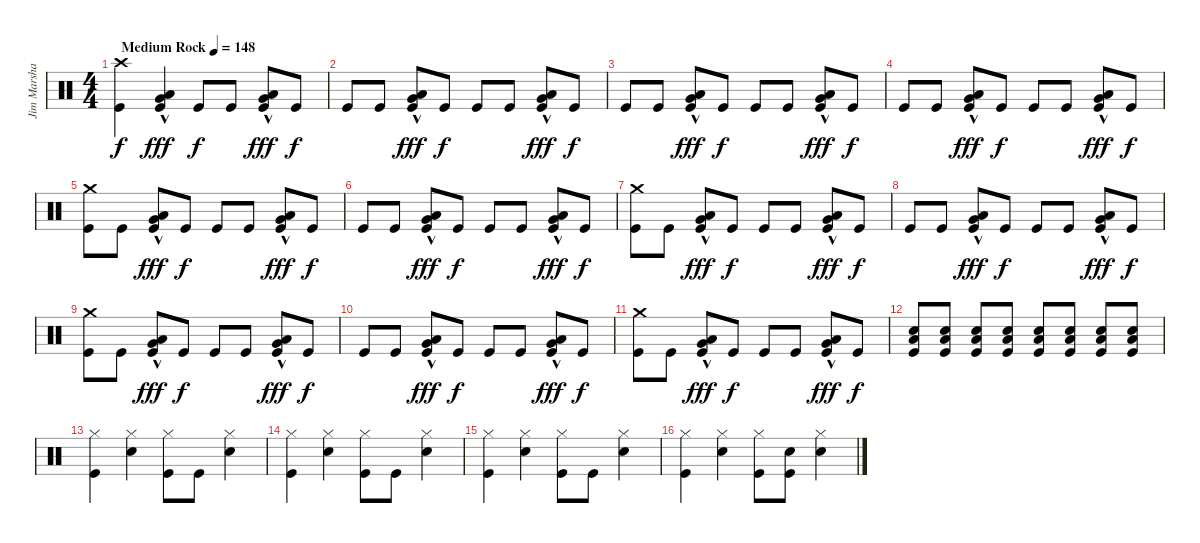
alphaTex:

\track ("Jim Marshall Drums" "Jim Marsha") {instrument percussion}
\staff {score}
\articulation defaults
\ts (4 4)
\tempo (148 "Medium Rock")
\clef neutral
\ks c
("Crash high (hit)" "Kick (hit)").4{dy f} ("Low Tom (hit)"{hac} "Very Low Tom (hit)" "Kick (hit)").4{dy fff} "Kick (hit)".8{dy f} "Kick (hit)".8 ("Low Tom (hit)"{hac} "Very Low Tom (hit)" "Kick (hit)").8{dy fff} "Kick (hit)".8{dy f} |
"Kick (hit)".8 "Kick (hit)".8 ("Low Tom (hit)"{hac} "Very Low Tom (hit)" "Kick (hit)").8{dy fff} "Kick (hit)".8{dy f} "Kick (hit)".8 "Kick (hit)".8 ("Low Tom (hit)"{hac} "Very Low Tom (hit)" "Kick (hit)").8{dy fff} "Kick (hit)".8{dy f} |
"Kick (hit)".8 "Kick (hit)".8 ("Low Tom (hit)"{hac} "Very Low Tom (hit)" "Kick (hit)").8{dy fff} "Kick (hit)".8{dy f} "Kick (hit)".8 "Kick (hit)".8 ("Low Tom (hit)"{hac} "Very Low Tom (hit)" "Kick (hit)").8{dy fff} "Kick (hit)".8{dy f} |
"Kick (hit)".8 "Kick (hit)".8 ("Low Tom (hit)"{hac} "Very Low Tom (hit)" "Kick (hit)").8{dy fff} "Kick (hit)".8{dy f} "Kick (hit)".8 "Kick (hit)".8 ("Low Tom (hit)"{hac} "Very Low Tom (hit)" "Kick (hit)").8{dy fff} "Kick (hit)".8{dy f} |
("Crash medium (hit)" "Kick (hit)").8 "Kick (hit)".8 ("Low Tom (hit)"{hac} "Very Low Tom (hit)" "Kick (hit)").8{dy fff} "Kick (hit)".8{dy f} "Kick (hit)".8 "Kick (hit)".8 ("Low Tom (hit)"{hac} "Very Low Tom (hit)" "Kick (hit)").8{dy fff} "Kick (hit)".8{dy f} |
"Kick (hit)".8 "Kick (hit)".8 ("Low Tom (hit)"{hac} "Very Low Tom (hit)" "Kick (hit)").8{dy fff} "Kick (hit)".8{dy f} "Kick (hit)".8 "Kick (hit)".8 ("Low Tom (hit)"{hac} "Very Low Tom (hit)" "Kick (hit)").8{dy fff} "Kick (hit)".8{dy f} |
("Crash medium (hit)" "Kick (hit)").8 "Kick (hit)".8 ("Low Tom (hit)"{hac} "Very Low Tom (hit)" "Kick (hit)").8{dy fff} "Kick (hit)".8{dy f} "Kick (hit)".8 "Kick (hit)".8 ("Low Tom (hit)"{hac} "Very Low Tom (hit)" "Kick (hit)").8{dy fff} "Kick (hit)".8{dy f} |
"Kick (hit)".8 "Kick (hit)".8 ("Low Tom (hit)"{hac} "Very Low Tom (hit)" "Kick (hit)").8{dy fff} "Kick (hit)".8{dy f} "Kick (hit)".8 "Kick (hit)".8 ("Low Tom (hit)"{hac} "Very Low Tom (hit)" "Kick (hit)").8{dy fff} "Kick (hit)".8{dy f} |
("Crash medium (hit)" "Kick (hit)").8 "Kick (hit)".8 ("Low Tom (hit)"{hac} "Very Low Tom (hit)" "Kick (hit)").8{dy fff} "Kick (hit)".8{dy f} "Kick (hit)".8 "Kick (hit)".8 ("Low Tom (hit)"{hac} "Very Low Tom (hit)" "Kick (hit)").8{dy fff} "Kick (hit)".8{dy f} |
"Kick (hit)".8 "Kick (hit)".8 ("Low Tom (hit)"{hac} "Very Low Tom (hit)" "Kick (hit)").8{dy fff} "Kick (hit)".8{dy f} "Kick (hit)".8 "Kick (hit)".8 ("Low Tom (hit)"{hac} "Very Low Tom (hit)" "Kick (hit)").8{dy fff} "Kick (hit)".8{dy f} |
("Crash medium (hit)" "Kick (hit)").8 "Kick (hit)".8 ("Low Tom (hit)"{hac} "Very Low Tom (hit)" "Kick (hit)").8{dy fff} "Kick (hit)".8{dy f} "Kick (hit)".8 "Kick (hit)".8 ("Low Tom (hit)"{hac} "Very Low Tom (hit)" "Kick (hit)").8{dy fff} "Kick (hit)".8{dy f} |
("Snare (hit) 2" "Low Tom (hit)" "Kick (hit)").8 ("Snare (hit) 2" "Low Tom (hit)" "Kick (hit)").8 ("Snare (hit) 2" "Low Tom (hit)" "Kick (hit)").8 ("Snare (hit) 2" "Low Tom (hit)" "Kick (hit)").8 ("Snare (hit) 2" "Low Tom (hit)" "Kick (hit)").8 ("Snare (hit) 2" "Low Tom (hit)" "Kick (hit)").8 ("Snare (hit) 2" "Low Tom (hit)" "Kick (hit)").8 ("Snare (hit) 2" "Low Tom (hit)" "Kick (hit)").8 |
("Hi-Hat (closed)" "Kick (hit)").4 ("Hi-Hat (closed)" "Snare (hit) 2").4 ("Hi-Hat (closed)" "Kick (hit)").8 "Kick (hit)".8 ("Hi-Hat (closed)" "Snare (hit) 2").4 |
("Hi-Hat (closed)" "Kick (hit)").4 ("Hi-Hat (closed)" "Snare (hit) 2").4 ("Hi-Hat (closed)" "Kick (hit)").8 "Kick (hit)".8 ("Hi-Hat (closed)" "Snare (hit) 2").4 |
("Hi-Hat (closed)" "Kick (hit)").4 ("Hi-Hat (closed)" "Snare (hit) 2").4 ("Hi-Hat (closed)" "Kick (hit)").8 "Kick (hit)".8 ("Hi-Hat (closed)" "Snare (hit) 2").4 |
("Hi-Hat (closed)" "Kick (hit)").4 ("Hi-Hat (closed)" "Snare (hit) 2").4 ("Hi-Hat (closed)" "Kick (hit)").8 ("Snare (hit) 2" "Kick (hit)").8 ("Hi-Hat (closed)" "Snare (hit) 2").4
